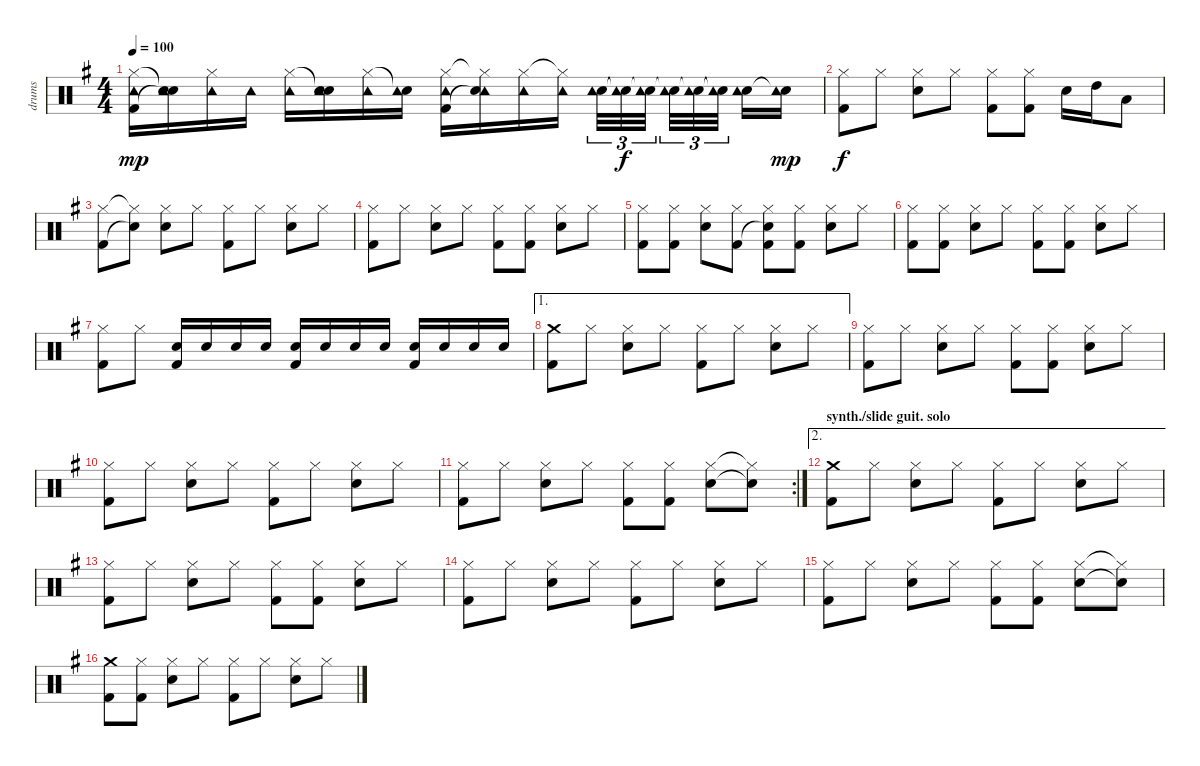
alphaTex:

\track ("drums" "drums") {instrument percussion}
\staff {score}
\articulation defaults
\ts (4 4)
\tempo 100
\clef neutral
\ks g
("Hi-Hat (closed)" "Tambourine (hit)" "Kick (hit) 2").16{dy mp} ("Snare (hit)"{t} "Tambourine (hit)" "Snare (hit)"{t}).16 ("Hi-Hat (closed)" "Tambourine (hit)").16 "Tambourine (hit)".16 ("Hi-Hat (closed)" "Tambourine (hit)").16 ("Snare (hit)"{t} "Snare (hit) 2" "Tambourine (hit)").16 ("Hi-Hat (closed)" "Tambourine (hit)").16 ("Snare (hit)"{t} "Tambourine (hit)").16 ("Hi-Hat (closed)" "Tambourine (hit)" "Kick (hit) 2").16 ("Hi-Hat (closed)"{t} "Tambourine (hit)" "Snare (hit)"{t}).16 ("Hi-Hat (closed)" "Tambourine (hit)").16 ("Hi-Hat (closed)"{t} "Tambourine (hit)").16 ("Snare (hit) 2" "Tambourine (hit)").32{tu (3 2)} ("Snare (hit) 2"{t} "Tambourine (hit)"{t}).32{tu (3 2) dy f} ("Snare (hit) 2" "Tambourine (hit)"{t}).32{tu (3 2)} ("Snare (hit) 2"{t} "Tambourine (hit)").32{tu (3 2)} ("Snare (hit) 2" "Tambourine (hit)"{t}).32{tu (3 2)} ("Snare (hit) 2"{t} "Tambourine (hit)"{t}).32{tu (3 2)} ("Snare (hit) 2" "Tambourine (hit)").16 ("Snare (hit) 2"{t} "Tambourine (hit)").16{dy mp} |
("Hi-Hat (closed)" "Kick (hit) 2").8{dy f} "Hi-Hat (closed)".8 ("Hi-Hat (closed)" "Snare (hit) 2").8 "Hi-Hat (closed)".8 ("Hi-Hat (closed)" "Kick (hit) 2").8 ("Hi-Hat (closed)" "Kick (hit) 2").8 "Snare (hit) 2".16 "High Tom (hit)".16 "Low Tom (hit)".8 |
("Hi-Hat (closed)" "Kick (hit) 2").8 ("Hi-Hat (closed)"{t} "Snare (hit)"{t}).8 ("Hi-Hat (closed)" "Snare (hit) 2").8 "Hi-Hat (closed)".8 ("Hi-Hat (closed)" "Kick (hit) 2").8 "Hi-Hat (closed)".8 ("Hi-Hat (closed)" "Snare (hit) 2").8 "Hi-Hat (closed)".8 |
("Hi-Hat (closed)" "Kick (hit) 2").8 "Hi-Hat (closed)".8 ("Hi-Hat (closed)" "Snare (hit) 2").8 "Hi-Hat (closed)".8 ("Hi-Hat (closed)" "Kick (hit) 2").8 ("Hi-Hat (closed)" "Kick (hit) 2").8 ("Hi-Hat (closed)" "Snare (hit) 2").8 "Hi-Hat (closed)".8 |
("Hi-Hat (closed)" "Kick (hit) 2").8 ("Hi-Hat (closed)" "Kick (hit) 2").8 ("Hi-Hat (closed)" "Snare (hit) 2").8 ("Hi-Hat (closed)" "Kick (hit) 2").8 ("Hi-Hat (closed)" "Snare (hit)"{t} "Kick (hit) 2").8 ("Hi-Hat (closed)" "Kick (hit) 2").8 ("Hi-Hat (closed)" "Snare (hit) 2").8 "Hi-Hat (closed)".8 |
("Hi-Hat (closed)" "Kick (hit) 2").8 ("Hi-Hat (closed)" "Kick (hit) 2").8 ("Hi-Hat (closed)" "Snare (hit) 2").8 "Hi-Hat (closed)".8 ("Hi-Hat (closed)" "Kick (hit) 2").8 ("Hi-Hat (closed)" "Kick (hit) 2").8 ("Hi-Hat (closed)" "Snare (hit) 2").8 "Hi-Hat (closed)".8 |
("Hi-Hat (closed)" "Kick (hit) 2").8 "Hi-Hat (closed)".8 ("Snare (hit) 2" "Kick (hit) 2").16 "Snare (hit) 2".16 "Snare (hit) 2".16 "Snare (hit) 2".16 ("Snare (hit) 2" "Kick (hit) 2").16 "Snare (hit) 2".16 "Snare (hit) 2".16 "Snare (hit) 2".16 ("Snare (hit) 2" "Kick (hit) 2").16 "Snare (hit) 2".16 "Snare (hit) 2".16 "Snare (hit) 2".16 |
\ae 1
("Crash medium (hit)" "Kick (hit) 2").8 "Hi-Hat (closed)".8 ("Hi-Hat (closed)" "Snare (hit) 2").8 "Hi-Hat (closed)".8 ("Hi-Hat (closed)" "Kick (hit) 2").8 "Hi-Hat (closed)".8 ("Hi-Hat (closed)" "Snare (hit) 2").8 "Hi-Hat (closed)".8 |
("Hi-Hat (closed)" "Kick (hit) 2").8 "Hi-Hat (closed)".8 ("Hi-Hat (closed)" "Snare (hit) 2").8 "Hi-Hat (closed)".8 ("Hi-Hat (closed)" "Kick (hit) 2").8 ("Hi-Hat (closed)" "Kick (hit) 2").8 ("Hi-Hat (closed)" "Snare (hit) 2").8 "Hi-Hat (closed)".8 |
("Hi-Hat (closed)" "Kick (hit) 2").8 "Hi-Hat (closed)".8 ("Hi-Hat (closed)" "Snare (hit) 2").8 "Hi-Hat (closed)".8 ("Hi-Hat (closed)" "Kick (hit) 2").8 "Hi-Hat (closed)".8 ("Hi-Hat (closed)" "Snare (hit) 2").8 "Hi-Hat (closed)".8 |
\rc 2
("Hi-Hat (closed)" "Kick (hit) 2").8 "Hi-Hat (closed)".8 ("Hi-Hat (closed)" "Snare (hit) 2").8 "Hi-Hat (closed)".8 ("Hi-Hat (closed)" "Kick (hit) 2").8 ("Hi-Hat (closed)" "Kick (hit) 2").8 ("Hi-Hat (closed)" "Snare (hit) 2").8 ("Hi-Hat (closed)"{t} "Snare (hit)"{t}).8 |
\ae 2
\section ("" "synth./slide guit. solo")
("Crash medium (hit)" "Kick (hit) 2").8 "Hi-Hat (closed)".8 ("Hi-Hat (closed)" "Snare (hit) 2").8 "Hi-Hat (closed)".8 ("Hi-Hat (closed)" "Kick (hit) 2").8 "Hi-Hat (closed)".8 ("Hi-Hat (closed)" "Snare (hit) 2").8 "Hi-Hat (closed)".8 |
("Hi-Hat (closed)" "Kick (hit) 2").8 "Hi-Hat (closed)".8 ("Hi-Hat (closed)" "Snare (hit) 2").8 "Hi-Hat (closed)".8 ("Hi-Hat (closed)" "Kick (hit) 2").8 ("Hi-Hat (closed)" "Kick (hit) 2").8 ("Hi-Hat (closed)" "Snare (hit) 2").8 "Hi-Hat (closed)".8 |
("Hi-Hat (closed)" "Kick (hit) 2").8 "Hi-Hat (closed)".8 ("Hi-Hat (closed)" "Snare (hit) 2").8 "Hi-Hat (closed)".8 ("Hi-Hat (closed)" "Kick (hit) 2").8 "Hi-Hat (closed)".8 ("Hi-Hat (closed)" "Snare (hit) 2").8 "Hi-Hat (closed)".8 |
("Hi-Hat (closed)" "Kick (hit) 2").8 "Hi-Hat (closed)".8 ("Hi-Hat (closed)" "Snare (hit) 2").8 "Hi-Hat (closed)".8 ("Hi-Hat (closed)" "Kick (hit) 2").8 ("Hi-Hat (closed)" "Kick (hit) 2").8 ("Hi-Hat (closed)" "Snare (hit) 2").8 ("Hi-Hat (closed)"{t} "Snare (hit)"{t}).8 |
("Crash medium (hit)" "Kick (hit) 2").8 ("Hi-Hat (closed)" "Kick (hit) 2").8 ("Hi-Hat (closed)" "Snare (hit) 2").8 "Hi-Hat (closed)".8 ("Hi-Hat (closed)" "Kick (hit) 2").8 "Hi-Hat (closed)".8 ("Hi-Hat (closed)" "Snare (hit) 2").8 "Hi-Hat (closed)".8
